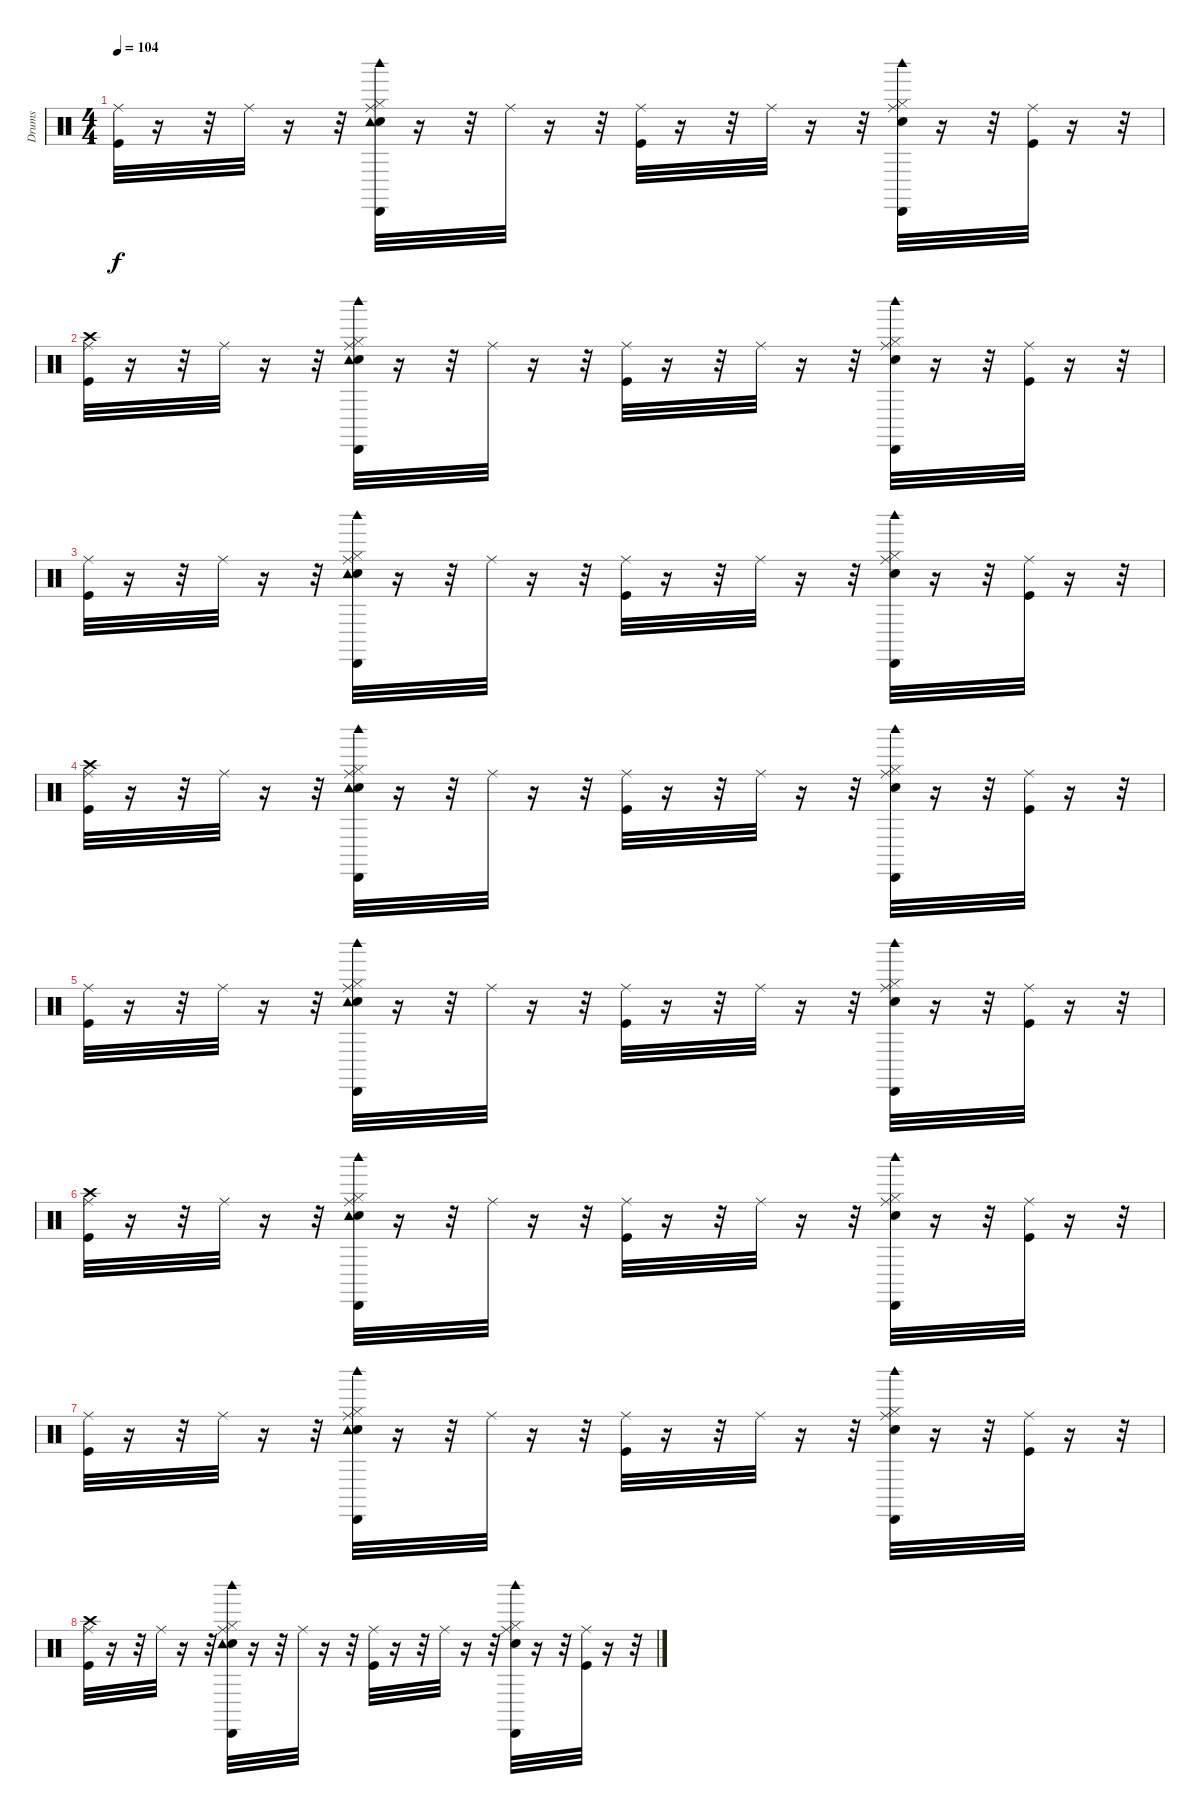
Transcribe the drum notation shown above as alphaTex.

\track ("Drums" "Drums") {instrument percussion}
\staff {score}
\articulation defaults
\ts (4 4)
\tempo 104
\clef neutral
\ks c
("Kick (hit)" "Ride (middle)").32{dy f} r.16 r.32 "Ride (middle)".32 r.16 r.32 ("Snare (hit) 2" "Hi-Hat (closed)" "Ride (middle)" "Tambourine (hit)" "Cabasa (hit)" "Woodblock high (hit)").32 r.16 r.32 "Ride (middle)".32 r.16 r.32 ("Kick (hit)" "Ride (middle)").32 r.16 r.32 "Ride (middle)".32 r.16 r.32 ("Snare (hit) 2" "Hi-Hat (closed)" "Ride (middle)" "Cabasa (hit)" "Woodblock high (hit)").32 r.16 r.32 ("Kick (hit)" "Ride (middle)").32 r.16 r.32 |
("Kick (hit)" "Crash high (hit)" "Ride (middle)").32 r.16 r.32 "Ride (middle)".32 r.16 r.32 ("Snare (hit) 2" "Hi-Hat (closed)" "Ride (middle)" "Tambourine (hit)" "Cabasa (hit)" "Woodblock high (hit)").32 r.16 r.32 "Ride (middle)".32 r.16 r.32 ("Kick (hit)" "Ride (middle)").32 r.16 r.32 "Ride (middle)".32 r.16 r.32 ("Snare (hit) 2" "Hi-Hat (closed)" "Ride (middle)" "Cabasa (hit)" "Woodblock high (hit)").32 r.16 r.32 ("Kick (hit)" "Ride (middle)").32 r.16 r.32 |
("Kick (hit)" "Ride (middle)").32 r.16 r.32 "Ride (middle)".32 r.16 r.32 ("Snare (hit) 2" "Hi-Hat (closed)" "Ride (middle)" "Tambourine (hit)" "Cabasa (hit)" "Woodblock high (hit)").32 r.16 r.32 "Ride (middle)".32 r.16 r.32 ("Kick (hit)" "Ride (middle)").32 r.16 r.32 "Ride (middle)".32 r.16 r.32 ("Snare (hit) 2" "Hi-Hat (closed)" "Ride (middle)" "Cabasa (hit)" "Woodblock high (hit)").32 r.16 r.32 ("Kick (hit)" "Ride (middle)").32 r.16 r.32 |
("Kick (hit)" "Crash high (hit)" "Ride (middle)").32 r.16 r.32 "Ride (middle)".32 r.16 r.32 ("Snare (hit) 2" "Hi-Hat (closed)" "Ride (middle)" "Tambourine (hit)" "Cabasa (hit)" "Woodblock high (hit)").32 r.16 r.32 "Ride (middle)".32 r.16 r.32 ("Kick (hit)" "Ride (middle)").32 r.16 r.32 "Ride (middle)".32 r.16 r.32 ("Snare (hit) 2" "Hi-Hat (closed)" "Ride (middle)" "Cabasa (hit)" "Woodblock high (hit)").32 r.16 r.32 ("Kick (hit)" "Ride (middle)").32 r.16 r.32 |
("Kick (hit)" "Ride (middle)").32 r.16 r.32 "Ride (middle)".32 r.16 r.32 ("Snare (hit) 2" "Hi-Hat (closed)" "Ride (middle)" "Tambourine (hit)" "Cabasa (hit)" "Woodblock high (hit)").32 r.16 r.32 "Ride (middle)".32 r.16 r.32 ("Kick (hit)" "Ride (middle)").32 r.16 r.32 "Ride (middle)".32 r.16 r.32 ("Snare (hit) 2" "Hi-Hat (closed)" "Ride (middle)" "Cabasa (hit)" "Woodblock high (hit)").32 r.16 r.32 ("Kick (hit)" "Ride (middle)").32 r.16 r.32 |
("Kick (hit)" "Crash high (hit)" "Ride (middle)").32 r.16 r.32 "Ride (middle)".32 r.16 r.32 ("Snare (hit) 2" "Hi-Hat (closed)" "Ride (middle)" "Tambourine (hit)" "Cabasa (hit)" "Woodblock high (hit)").32 r.16 r.32 "Ride (middle)".32 r.16 r.32 ("Kick (hit)" "Ride (middle)").32 r.16 r.32 "Ride (middle)".32 r.16 r.32 ("Snare (hit) 2" "Hi-Hat (closed)" "Ride (middle)" "Cabasa (hit)" "Woodblock high (hit)").32 r.16 r.32 ("Kick (hit)" "Ride (middle)").32 r.16 r.32 |
("Kick (hit)" "Ride (middle)").32 r.16 r.32 "Ride (middle)".32 r.16 r.32 ("Snare (hit) 2" "Hi-Hat (closed)" "Ride (middle)" "Tambourine (hit)" "Cabasa (hit)" "Woodblock high (hit)").32 r.16 r.32 "Ride (middle)".32 r.16 r.32 ("Kick (hit)" "Ride (middle)").32 r.16 r.32 "Ride (middle)".32 r.16 r.32 ("Snare (hit) 2" "Hi-Hat (closed)" "Ride (middle)" "Cabasa (hit)" "Woodblock high (hit)").32 r.16 r.32 ("Kick (hit)" "Ride (middle)").32 r.16 r.32 |
("Kick (hit)" "Crash high (hit)" "Ride (middle)").32 r.16 r.32 "Ride (middle)".32 r.16 r.32 ("Snare (hit) 2" "Hi-Hat (closed)" "Ride (middle)" "Tambourine (hit)" "Cabasa (hit)" "Woodblock high (hit)").32 r.16 r.32 "Ride (middle)".32 r.16 r.32 ("Kick (hit)" "Ride (middle)").32 r.16 r.32 "Ride (middle)".32 r.16 r.32 ("Snare (hit) 2" "Hi-Hat (closed)" "Ride (middle)" "Cabasa (hit)" "Woodblock high (hit)").32 r.16 r.32 ("Kick (hit)" "Ride (middle)").32 r.16 r.32
